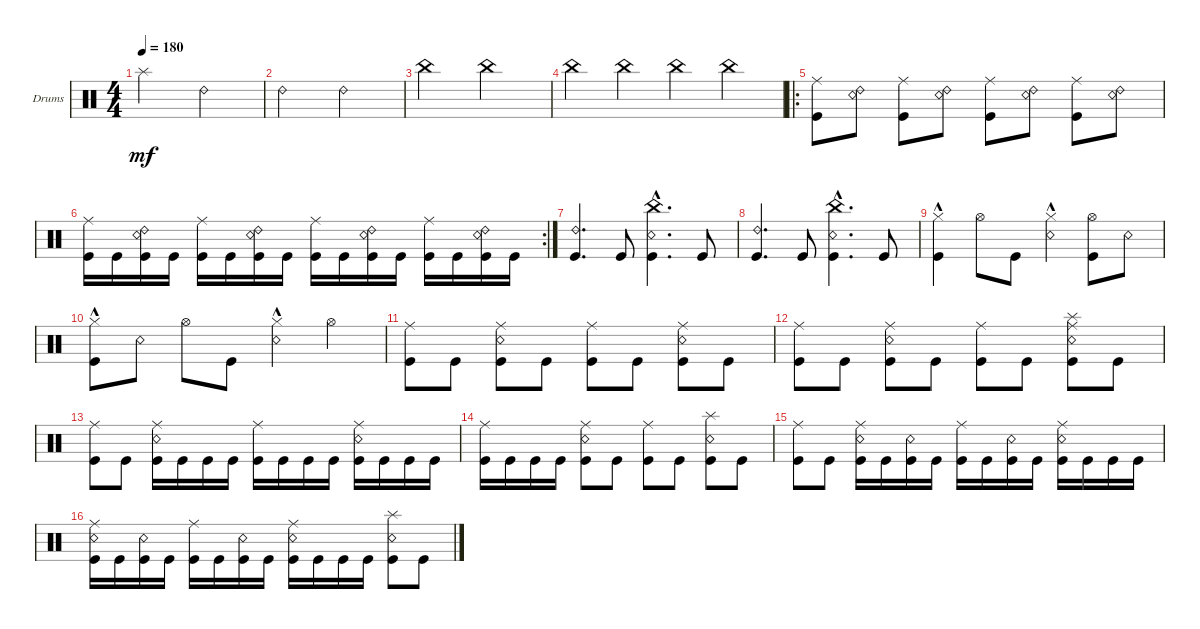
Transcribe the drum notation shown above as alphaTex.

\defaultSystemsLayout 4
\bracketExtendMode groupsimilarinstruments
\firstSystemTrackNameOrientation horizontal
\otherSystemsTrackNameOrientation horizontal
\track ("Drumkit" "Drums") {instrument percussion}
\staff {score}
\articulation defaults
\ts (4 4)
\tempo 180
\clef neutral
\scale
0.333333
\ks c "Splash (hit)".2{dy mf} "Ride (bell) 2".2
|
\scale
0.333333 "Ride (bell) 2".2 "Ride (bell) 2".2 |
\scale
0.333333 "China (hit)".2 "China (hit)".2 |
\scale
0.333333 "China (hit)".4 "China (hit)".4 "China (hit)".4 "China (hit)".4 |
\ro
\scale
0.333333 ("Ride (middle)" "Kick (hit)").8 ("Ride (bell) 2" "Snare (rim shot)").8 ("Ride (middle)" "Kick (hit)").8 ("Ride (bell) 2" "Snare (rim shot)").8 ("Ride (middle)" "Kick (hit)").8 ("Ride (bell) 2" "Snare (rim shot)").8 ("Ride (middle)" "Kick (hit)").8 ("Ride (bell) 2" "Snare (rim shot)").8 |
\rc 2
\scale
0.333333 ("Kick (hit)" "Ride (middle)").16 "Kick (hit)".16 ("Kick (hit)" "Ride (bell) 2" "Snare (rim shot)").16 "Kick (hit)".16 ("Kick (hit)" "Ride (middle)").16 "Kick (hit)".16 ("Kick (hit)" "Ride (bell) 2" "Snare (rim shot)").16 "Kick (hit)".16 ("Kick (hit)" "Ride (middle)").16 "Kick (hit)".16 ("Kick (hit)" "Ride (bell) 2" "Snare (rim shot)").16 "Kick (hit)".16 ("Kick (hit)" "Ride (middle)").16 "Kick (hit)".16 ("Kick (hit)" "Ride (bell) 2" "Snare (rim shot)").16 "Kick (hit)".16 |
\scale
0.333333 ("Kick (hit)" "Ride (bell) 2").4{d} "Kick (hit)".8 ("Kick (hit)" "China (hit)"{hac} "Snare (rim shot)").4{d} "Kick (hit)".8 |
\scale
0.333333 ("Kick (hit)" "Ride (bell) 2").4{d} "Kick (hit)".8 ("Kick (hit)" "China (hit)"{hac} "Snare (rim shot)").4{d} "Kick (hit)".8 |
("Kick (hit)" "Hi-Hat (closed)"{hac}).4 "Hi-Hat (open)".8 "Kick (hit)".8 ("Hi-Hat (closed)"{hac} "Snare (rim shot)").4 ("Hi-Hat (open)" "Kick (hit)").8 "Snare (rim shot)".8 |
("Hi-Hat (closed)"{hac} "Kick (hit)").8 "Snare (rim shot)".8 "Hi-Hat (open)".8 "Kick (hit)".8 ("Hi-Hat (closed)"{hac} "Snare (rim shot)").4 "Hi-Hat (open)".4 |
("Kick (hit)" "Ride (middle)").8 "Kick (hit)".8 ("Kick (hit)" "Ride (middle)" "Snare (rim shot)").8 "Kick (hit)".8 ("Kick (hit)" "Ride (middle)").8 "Kick (hit)".8 ("Kick (hit)" "Ride (middle)" "Snare (rim shot)").8 "Kick (hit)".8 |
("Kick (hit)" "Ride (middle)").8 "Kick (hit)".8 ("Kick (hit)" "Ride (middle)" "Snare (rim shot)").8 "Kick (hit)".8 ("Kick (hit)" "Ride (middle)").8 "Kick (hit)".8 ("Kick (hit)" "Ride (middle)" "Snare (rim shot)" "Splash (hit)").8 "Kick (hit)".8 |
("Kick (hit)" "Ride (middle)").8 "Kick (hit)".8 ("Kick (hit)" "Ride (middle)" "Snare (rim shot)").16 "Kick (hit)".16 "Kick (hit)".16 "Kick (hit)".16 ("Kick (hit)" "Ride (middle)").16 "Kick (hit)".16 "Kick (hit)".16 "Kick (hit)".16 ("Kick (hit)" "Ride (middle)" "Snare (rim shot)").16 "Kick (hit)".16 "Kick (hit)".16 "Kick (hit)".16 |
("Kick (hit)" "Ride (middle)").16 "Kick (hit)".16 "Kick (hit)".16 "Kick (hit)".16 ("Kick (hit)" "Ride (middle)" "Snare (rim shot)").8 "Kick (hit)".8 ("Kick (hit)" "Ride (middle)").8 "Kick (hit)".8 ("Kick (hit)" "Snare (rim shot)" "Splash (hit)").8 "Kick (hit)".8 |
("Kick (hit)" "Ride (middle)").8 "Kick (hit)".8 ("Ride (middle)" "Snare (rim shot)" "Kick (hit)").16 "Kick (hit)".16 ("Snare (rim shot)" "Kick (hit)").16 "Kick (hit)".16 ("Kick (hit)" "Ride (middle)").16 "Kick (hit)".16 ("Kick (hit)" "Snare (rim shot)").16 "Kick (hit)".16 ("Ride (middle)" "Snare (rim shot)" "Kick (hit)").16 "Kick (hit)".16 "Kick (hit)".16 "Kick (hit)".16 |
("Kick (hit)" "Ride (middle)" "Snare (rim shot)").16 "Kick (hit)".16 ("Snare (rim shot)" "Kick (hit)").16 "Kick (hit)".16 ("Kick (hit)" "Ride (middle)").16 "Kick (hit)".16 ("Kick (hit)" "Snare (rim shot)").16 "Kick (hit)".16 ("Kick (hit)" "Ride (middle)" "Snare (rim shot)").16 "Kick (hit)".16 "Kick (hit)".16 "Kick (hit)".16 ("Kick (hit)" "Snare (rim shot)" "Splash (hit)").8 "Kick (hit)".8
